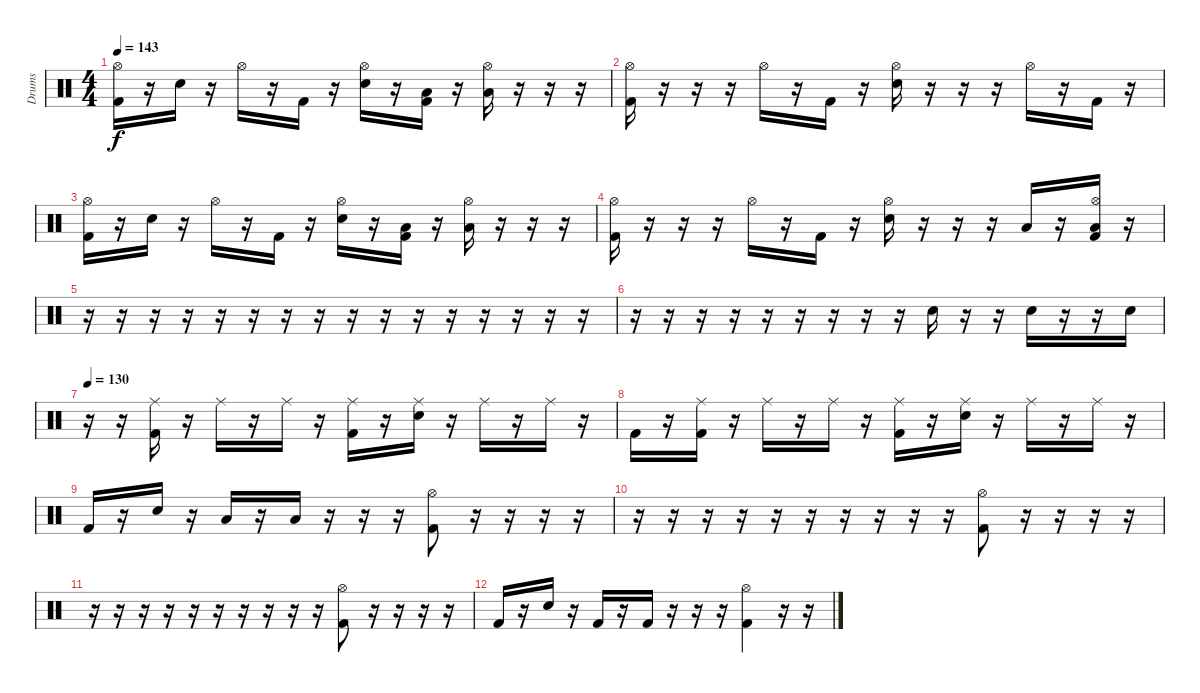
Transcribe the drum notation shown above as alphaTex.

\track ("Drums" "Drums") {instrument percussion}
\staff {score}
\articulation defaults
\ts (4 4)
\tempo 143
\clef neutral
\ks c
("Kick (hit) 2" "Hi-Hat (open)").16{dy f} r.16 "Electric Snare (hit)".16 r.16 "Hi-Hat (open)".16 r.16 "Kick (hit) 2".16 r.16 ("Electric Snare (hit)" "Hi-Hat (open)").16 r.16 ("Kick (hit) 2" "Low Tom (hit)").16 r.16 ("Hi-Hat (open)" "Low Tom (hit)").16 r.16 r.16 r.16 |
("Kick (hit) 2" "Hi-Hat (open)").16 r.16 r.16 r.16 "Hi-Hat (open)".16 r.16 "Kick (hit) 2".16 r.16 ("Electric Snare (hit)" "Hi-Hat (open)").16 r.16 r.16 r.16 "Hi-Hat (open)".16 r.16 "Kick (hit) 2".16 r.16 |
("Kick (hit) 2" "Hi-Hat (open)").16 r.16 "Electric Snare (hit)".16 r.16 "Hi-Hat (open)".16 r.16 "Kick (hit) 2".16 r.16 ("Electric Snare (hit)" "Hi-Hat (open)").16 r.16 ("Kick (hit) 2" "Low Tom (hit)").16 r.16 ("Hi-Hat (open)" "Low Tom (hit)").16 r.16 r.16 r.16 |
("Kick (hit) 2" "Hi-Hat (open)").16 r.16 r.16 r.16 "Hi-Hat (open)".16 r.16 "Kick (hit) 2".16 r.16 ("Electric Snare (hit)" "Hi-Hat (open)").16 r.16 r.16 r.16 "Low Tom (hit)".16 r.16 ("Kick (hit) 2" "Low Tom (hit)" "Hi-Hat (open)").16 r.16 |
r.16 r.16 r.16 r.16 r.16 r.16 r.16 r.16 r.16 r.16 r.16 r.16 r.16 r.16 r.16 r.16 |
r.16 r.16 r.16 r.16 r.16 r.16 r.16 r.16 r.16 "Electric Snare (hit)".16 r.16 r.16 "Electric Snare (hit)".16 r.16 r.16 "Electric Snare (hit)".16 |
\tempo 130
r.16 r.16 ("Kick (hit) 2" "Ride (middle)").16 r.16 "Ride (middle)".16 r.16 "Ride (middle)".16 r.16 ("Kick (hit) 2" "Ride (middle)").16 r.16 ("Electric Snare (hit)" "Ride (middle)").16 r.16 "Ride (middle)".16 r.16 "Ride (middle)".16 r.16 |
"Kick (hit) 2".16 r.16 ("Kick (hit) 2" "Ride (middle)").16 r.16 "Ride (middle)".16 r.16 "Ride (middle)".16 r.16 ("Kick (hit) 2" "Ride (middle)").16 r.16 ("Electric Snare (hit)" "Ride (middle)").16 r.16 "Ride (middle)".16 r.16 "Ride (middle)".16 r.16 |
"Kick (hit) 2".16 r.16 "Electric Snare (hit)".16 r.16 "Low Tom (hit)".16 r.16 "Low Tom (hit)".16 r.16 r.16 r.16 ("Kick (hit) 2" "Hi-Hat (open)").8 r.16 r.16 r.16 r.16 |
r.16 r.16 r.16 r.16 r.16 r.16 r.16 r.16 r.16 r.16 ("Kick (hit) 2" "Hi-Hat (open)").8 r.16 r.16 r.16 r.16 |
r.16 r.16 r.16 r.16 r.16 r.16 r.16 r.16 r.16 r.16 ("Kick (hit) 2" "Hi-Hat (open)").8 r.16 r.16 r.16 r.16 |
"Kick (hit) 2".16 r.16 "Electric Snare (hit)".16 r.16 "Kick (hit) 2".16 r.16 "Kick (hit) 2".16 r.16 r.16 r.16 ("Kick (hit) 2" "Hi-Hat (open)").4 r.16 r.16
